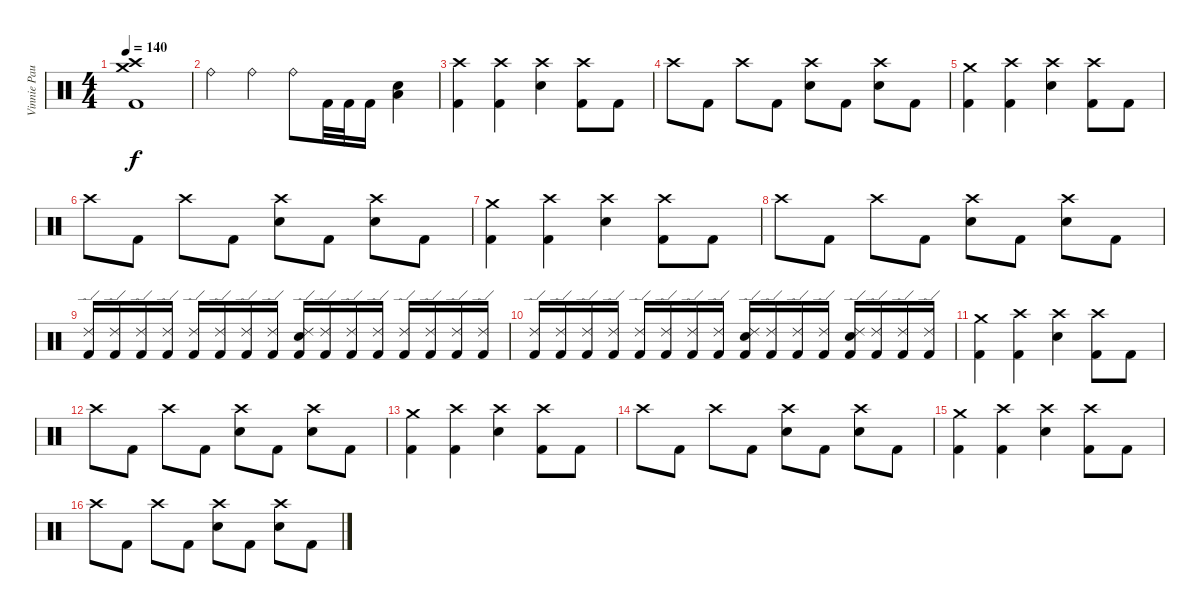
\track ("Vinnie Paul" "Vinnie Pau") {instrument percussion}
\staff {score}
\articulation defaults
\ts (4 4)
\tempo 140
\clef neutral
\ks c
("Crash high (hit)" "Crash medium (hit)" "Kick (hit) 2").1{dy f} |
"Ride (bell)".4 "Ride (bell)".4 "Ride (bell)".8 "Kick (hit) 2".32 "Kick (hit) 2".32 "Kick (hit) 2".16 ("Low Floor Tom (hit)" "Snare (hit) 2").4 |
("Crash high (hit)" "Kick (hit) 2").4 ("Crash high (hit)" "Kick (hit) 2").4 ("Crash high (hit)" "Snare (hit) 2").4 ("Crash high (hit)" "Kick (hit) 2").8 "Kick (hit) 2".8 |
"Crash high (hit)".8 "Kick (hit) 2".8 "Crash high (hit)".8 "Kick (hit) 2".8 ("Crash high (hit)" "Snare (hit) 2").8 "Kick (hit) 2".8 ("Crash high (hit)" "Snare (hit) 2").8 "Kick (hit) 2".8 |
("Crash medium (hit)" "Kick (hit) 2").4 ("Crash high (hit)" "Kick (hit) 2").4 ("Crash high (hit)" "Snare (hit) 2").4 ("Crash high (hit)" "Kick (hit) 2").8 "Kick (hit) 2".8 |
"Crash high (hit)".8 "Kick (hit) 2".8 "Crash high (hit)".8 "Kick (hit) 2".8 ("Crash high (hit)" "Snare (hit) 2").8 "Kick (hit) 2".8 ("Crash high (hit)" "Snare (hit) 2").8 "Kick (hit) 2".8 |
("Crash medium (hit)" "Kick (hit) 2").4 ("Crash high (hit)" "Kick (hit) 2").4 ("Crash high (hit)" "Snare (hit) 2").4 ("Crash high (hit)" "Kick (hit) 2").8 "Kick (hit) 2".8 |
"Crash high (hit)".8 "Kick (hit) 2".8 "Crash high (hit)".8 "Kick (hit) 2".8 ("Crash high (hit)" "Snare (hit) 2").8 "Kick (hit) 2".8 ("Crash high (hit)" "Snare (hit) 2").8 "Kick (hit) 2".8 |
("Ride (edge) 2" "Kick (hit) 2").16 ("Ride (edge) 2" "Kick (hit) 2").16 ("Ride (edge) 2" "Kick (hit) 2").16 ("Ride (edge) 2" "Kick (hit) 2").16 ("Ride (edge) 2" "Kick (hit) 2").16 ("Ride (edge) 2" "Kick (hit) 2").16 ("Ride (edge) 2" "Kick (hit) 2").16 ("Ride (edge) 2" "Kick (hit) 2").16 ("Ride (edge) 2" "Snare (hit) 2" "Kick (hit) 2").16 ("Ride (edge) 2" "Kick (hit) 2").16 ("Ride (edge) 2" "Kick (hit) 2").16 ("Ride (edge) 2" "Kick (hit) 2").16 ("Ride (edge) 2" "Kick (hit) 2").16 ("Ride (edge) 2" "Kick (hit) 2").16 ("Ride (edge) 2" "Kick (hit) 2").16 ("Ride (edge) 2" "Kick (hit) 2").16 |
("Ride (edge) 2" "Kick (hit) 2").16 ("Ride (edge) 2" "Kick (hit) 2").16 ("Ride (edge) 2" "Kick (hit) 2").16 ("Ride (edge) 2" "Kick (hit) 2").16 ("Ride (edge) 2" "Kick (hit) 2").16 ("Ride (edge) 2" "Kick (hit) 2").16 ("Ride (edge) 2" "Kick (hit) 2").16 ("Ride (edge) 2" "Kick (hit) 2").16 ("Ride (edge) 2" "Snare (hit) 2" "Kick (hit) 2").16 ("Ride (edge) 2" "Kick (hit) 2").16 ("Ride (edge) 2" "Kick (hit) 2").16 ("Ride (edge) 2" "Kick (hit) 2").16 ("Ride (edge) 2" "Snare (hit) 2" "Kick (hit) 2").16 ("Ride (edge) 2" "Kick (hit) 2").16 ("Ride (edge) 2" "Kick (hit) 2").16 ("Ride (edge) 2" "Kick (hit) 2").16 |
("Crash medium (hit)" "Kick (hit) 2").4 ("Crash high (hit)" "Kick (hit) 2").4 ("Crash high (hit)" "Snare (hit) 2").4 ("Crash high (hit)" "Kick (hit) 2").8 "Kick (hit) 2".8 |
"Crash high (hit)".8 "Kick (hit) 2".8 "Crash high (hit)".8 "Kick (hit) 2".8 ("Crash high (hit)" "Snare (hit) 2").8 "Kick (hit) 2".8 ("Crash high (hit)" "Snare (hit) 2").8 "Kick (hit) 2".8 |
("Crash medium (hit)" "Kick (hit) 2").4 ("Crash high (hit)" "Kick (hit) 2").4 ("Crash high (hit)" "Snare (hit) 2").4 ("Crash high (hit)" "Kick (hit) 2").8 "Kick (hit) 2".8 |
"Crash high (hit)".8 "Kick (hit) 2".8 "Crash high (hit)".8 "Kick (hit) 2".8 ("Crash high (hit)" "Snare (hit) 2").8 "Kick (hit) 2".8 ("Crash high (hit)" "Snare (hit) 2").8 "Kick (hit) 2".8 |
("Crash medium (hit)" "Kick (hit) 2").4 ("Crash high (hit)" "Kick (hit) 2").4 ("Crash high (hit)" "Snare (hit) 2").4 ("Crash high (hit)" "Kick (hit) 2").8 "Kick (hit) 2".8 |
"Crash high (hit)".8 "Kick (hit) 2".8 "Crash high (hit)".8 "Kick (hit) 2".8 ("Crash high (hit)" "Snare (hit) 2").8 "Kick (hit) 2".8 ("Crash high (hit)" "Snare (hit) 2").8 "Kick (hit) 2".8
